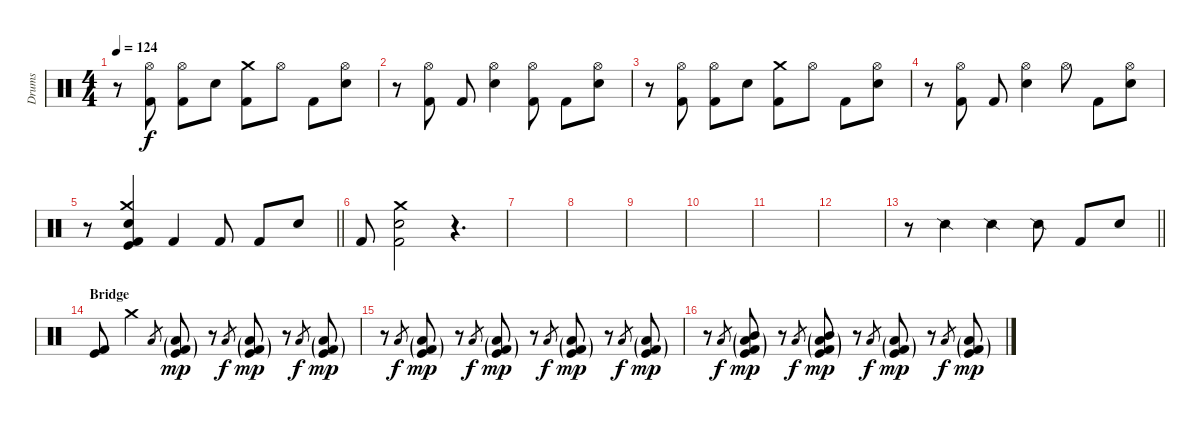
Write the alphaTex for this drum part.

\track ("Drums" "Drums") {instrument percussion}
\staff {score}
\articulation defaults
\ts (4 4)
\tempo 124
\clef neutral
\ks c
r.8{dy f} ("Hi-Hat (open)" "Kick (hit) 2").8 ("Hi-Hat (open)" "Kick (hit) 2").8 "Electric Snare (hit)".8 ("Crash medium (hit)" "Kick (hit) 2").8 "Hi-Hat (open)".8 "Kick (hit) 2".8 ("Electric Snare (hit)" "Hi-Hat (open)").8 |
r.8 ("Hi-Hat (open)" "Kick (hit) 2").8 "Kick (hit) 2".8 ("Electric Snare (hit)" "Hi-Hat (open)").4 ("Hi-Hat (open)" "Kick (hit) 2").8 "Kick (hit) 2".8 ("Electric Snare (hit)" "Hi-Hat (open)").8 |
r.8 ("Hi-Hat (open)" "Kick (hit) 2").8 ("Hi-Hat (open)" "Kick (hit) 2").8 "Electric Snare (hit)".8 ("Crash medium (hit)" "Kick (hit) 2").8 "Hi-Hat (open)".8 "Kick (hit) 2".8 ("Electric Snare (hit)" "Hi-Hat (open)").8 |
r.8 ("Hi-Hat (open)" "Kick (hit) 2").8 "Kick (hit) 2".8 ("Electric Snare (hit)" "Hi-Hat (open)").4 "Hi-Hat (open)".8 "Kick (hit) 2".8 ("Electric Snare (hit)" "Hi-Hat (open)").8 |
\barLineRight lightlight
r.8 ("Kick (hit)" "Crash medium (hit)" "Kick (hit) 2" "Electric Snare (hit)").4 "Kick (hit) 2".4 "Kick (hit) 2".8 "Kick (hit) 2".8 "Electric Snare (hit)".8 |
"Kick (hit) 2".8 ("Crash medium (hit)" "Electric Snare (hit)" "Kick (hit) 2").2 r.4{d} |
|
|
|
|
|
|
\barLineRight lightlight
r.8 "Snare (side stick) 2".4 "Snare (side stick) 2".4 "Snare (side stick) 2".8 "Kick (hit) 2".8 "Electric Snare (hit)".8 |
\section ("" "Bridge")
("Kick (hit)" "Kick (hit) 2").8 "Crash medium (hit)".4 "Low Floor Tom (hit)".8{gr} ("Kick (hit)"{g} "Kick (hit) 2"{g} "Low Floor Tom (hit)"{g}).8{dy mp volume 7} r.8 "Low Floor Tom (hit)".8{gr dy f} ("Kick (hit)"{g} "Kick (hit) 2"{g} "Low Floor Tom (hit)"{g}).8{dy mp} r.8 "Low Floor Tom (hit)".8{gr dy f} ("Kick (hit)"{g} "Kick (hit) 2"{g} "Low Floor Tom (hit)"{g}).8{dy mp} |
r.8 "Low Floor Tom (hit)".8{gr dy f} ("Kick (hit)"{g} "Kick (hit) 2"{g} "Low Floor Tom (hit)"{g}).8{dy mp} r.8 "Low Floor Tom (hit)".8{gr dy f} ("Kick (hit)"{g} "Kick (hit) 2"{g} "Low Floor Tom (hit)"{g}).8{dy mp} r.8 "Low Floor Tom (hit)".8{gr dy f} ("Kick (hit)"{g} "Kick (hit) 2"{g} "Low Floor Tom (hit)"{g}).8{dy mp} r.8 "Low Floor Tom (hit)".8{gr dy f} ("Kick (hit)"{g} "Kick (hit) 2"{g} "Low Floor Tom (hit)"{g}).8{dy mp} |
r.8 "Low Floor Tom (hit)".8{gr dy f} ("Mid Tom (hit)"{g} "Kick (hit)"{g} "Kick (hit) 2"{g} "Low Floor Tom (hit)"{g}).8{dy mp} r.8 "Low Floor Tom (hit)".8{gr dy f} ("Mid Tom (hit)"{g} "Kick (hit)"{g} "Kick (hit) 2"{g} "Low Floor Tom (hit)"{g}).8{dy mp} r.8 "Low Floor Tom (hit)".8{gr dy f} ("Kick (hit)"{g} "Kick (hit) 2"{g} "Low Floor Tom (hit)"{g}).8{dy mp} r.8 "Low Floor Tom (hit)".8{gr dy f} ("Kick (hit)"{g} "Kick (hit) 2"{g} "Low Floor Tom (hit)"{g}).8{dy mp}
